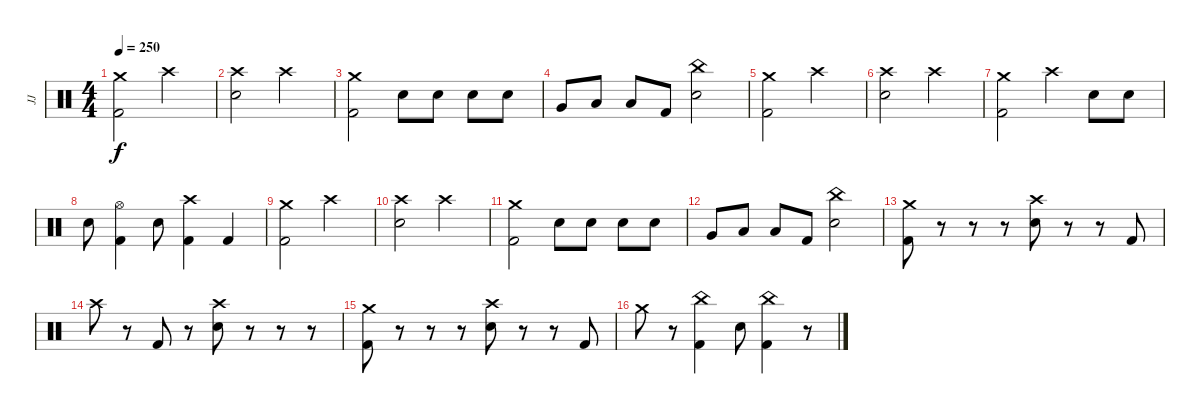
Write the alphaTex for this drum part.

\track ("JJ" "JJ") {instrument percussion}
\staff {score}
\articulation defaults
\ts (4 4)
\tempo 250
\clef neutral
\ks c
("Crash medium (hit)" "Kick (hit) 2").2{dy f} "Crash high (hit)".2 |
("Crash high (hit)" "Electric Snare (hit)").2 "Crash high (hit)".2 |
("Crash medium (hit)" "Kick (hit) 2").2 "Electric Snare (hit)".8 "Electric Snare (hit)".8 "Electric Snare (hit)".8 "Electric Snare (hit)".8 |
"Very Low Tom (hit)".8 "Low Floor Tom (hit)".8 "Low Floor Tom (hit)".8 "Kick (hit) 2".8 ("China (hit)" "Electric Snare (hit)").2 |
("Crash medium (hit)" "Kick (hit) 2").2 "Crash high (hit)".2 |
("Crash high (hit)" "Electric Snare (hit)").2 "Crash high (hit)".2 |
("Crash medium (hit)" "Kick (hit) 2").2 "Crash high (hit)".4 "Electric Snare (hit)".8 "Electric Snare (hit)".8 |
"Electric Snare (hit)".8 ("Hi-Hat (open)" "Kick (hit) 2").4 "Electric Snare (hit)".8 ("Crash high (hit)" "Kick (hit) 2").4 "Kick (hit) 2".4 |
("Crash medium (hit)" "Kick (hit) 2").2 "Crash high (hit)".2 |
("Crash high (hit)" "Electric Snare (hit)").2 "Crash high (hit)".2 |
("Crash medium (hit)" "Kick (hit) 2").2 "Electric Snare (hit)".8 "Electric Snare (hit)".8 "Electric Snare (hit)".8 "Electric Snare (hit)".8 |
"Very Low Tom (hit)".8 "Low Floor Tom (hit)".8 "Low Floor Tom (hit)".8 "Kick (hit) 2".8 ("China (hit)" "Electric Snare (hit)").2 |
("Crash medium (hit)" "Kick (hit) 2").8 r.8 r.8 r.8 ("Crash high (hit)" "Electric Snare (hit)").8 r.8 r.8 "Kick (hit) 2".8 |
"Crash high (hit)".8 r.8 "Kick (hit) 2".8 r.8 ("Crash high (hit)" "Electric Snare (hit)").8 r.8 r.8 r.8 |
("Crash medium (hit)" "Kick (hit) 2").8 r.8 r.8 r.8 ("Crash high (hit)" "Electric Snare (hit)").8 r.8 r.8 "Kick (hit) 2".8 |
"Crash medium (hit)".8 r.8 ("China (hit)" "Kick (hit) 2").4 "Electric Snare (hit)".8 ("China (hit)" "Kick (hit) 2").4 r.8
